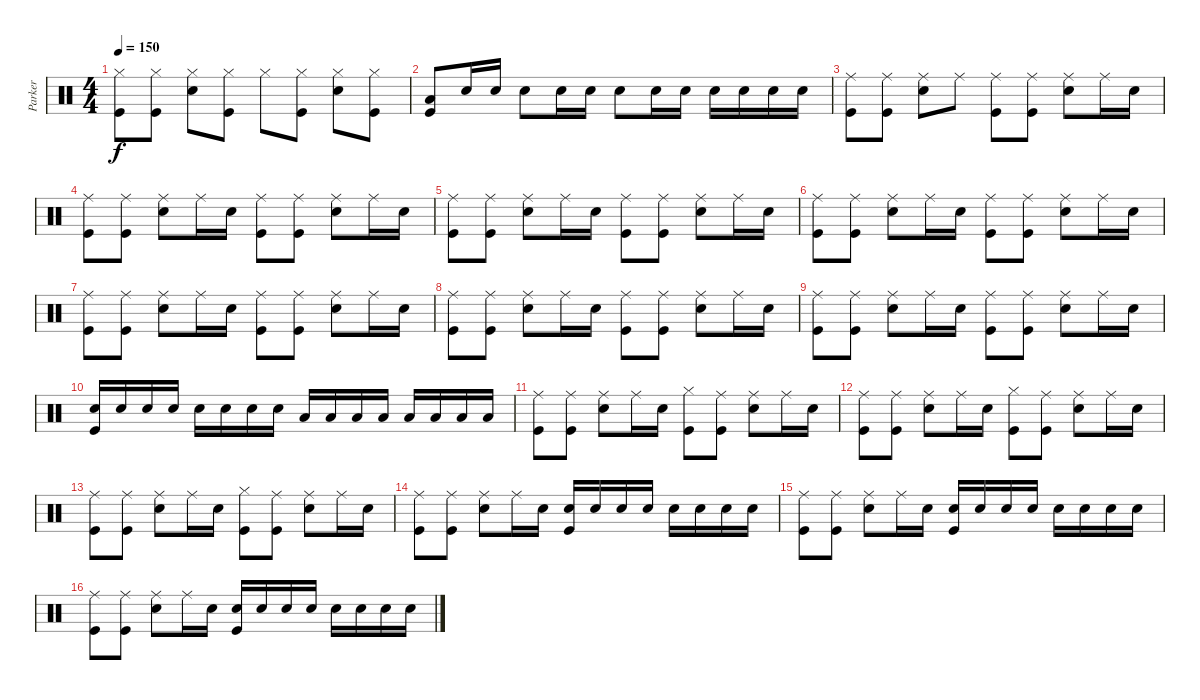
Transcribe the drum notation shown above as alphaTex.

\track ("Parker" "Parker") {instrument percussion}
\staff {score}
\articulation defaults
\ts (4 4)
\tempo 150
\clef neutral
\ks c
("Hi-Hat (closed)" "Kick (hit)").8{dy f} ("Hi-Hat (closed)" "Kick (hit)").8 ("Hi-Hat (closed)" "Electric Snare (hit)").8 ("Hi-Hat (closed)" "Kick (hit)").8 "Hi-Hat (closed)".8 ("Hi-Hat (closed)" "Kick (hit)").8 ("Hi-Hat (closed)" "Electric Snare (hit)").8 ("Hi-Hat (closed)" "Kick (hit)").8 |
("Low Tom (hit)" "Kick (hit)").8 "Electric Snare (hit)".16 "Electric Snare (hit)".16 "Electric Snare (hit)".8 "Electric Snare (hit)".16 "Electric Snare (hit)".16 "Electric Snare (hit)".8 "Electric Snare (hit)".16 "Electric Snare (hit)".16 "Electric Snare (hit)".16 "Electric Snare (hit)".16 "Electric Snare (hit)".16 "Electric Snare (hit)".16 |
("Ride (middle)" "Kick (hit)").8 ("Ride (middle)" "Kick (hit)").8 ("Ride (middle)" "Electric Snare (hit)").8 "Ride (middle)".8 ("Ride (middle)" "Kick (hit)").8 ("Ride (middle)" "Kick (hit)").8 ("Ride (middle)" "Electric Snare (hit)").8 "Ride (middle)".16 "Electric Snare (hit)".16 |
("Ride (middle)" "Kick (hit)").8 ("Ride (middle)" "Kick (hit)").8 ("Ride (middle)" "Electric Snare (hit)").8 "Ride (middle)".16 "Electric Snare (hit)".16 ("Ride (middle)" "Kick (hit)").8 ("Ride (middle)" "Kick (hit)").8 ("Ride (middle)" "Electric Snare (hit)").8 "Ride (middle)".16 "Electric Snare (hit)".16 |
("Ride (middle)" "Kick (hit)").8 ("Ride (middle)" "Kick (hit)").8 ("Ride (middle)" "Electric Snare (hit)").8 "Ride (middle)".16 "Electric Snare (hit)".16 ("Ride (middle)" "Kick (hit)").8 ("Ride (middle)" "Kick (hit)").8 ("Ride (middle)" "Electric Snare (hit)").8 "Ride (middle)".16 "Electric Snare (hit)".16 |
("Ride (middle)" "Kick (hit)").8 ("Ride (middle)" "Kick (hit)").8 ("Ride (middle)" "Electric Snare (hit)").8 "Ride (middle)".16 "Electric Snare (hit)".16 ("Ride (middle)" "Kick (hit)").8 ("Ride (middle)" "Kick (hit)").8 ("Ride (middle)" "Electric Snare (hit)").8 "Ride (middle)".16 "Electric Snare (hit)".16 |
("Ride (middle)" "Kick (hit)").8 ("Ride (middle)" "Kick (hit)").8 ("Ride (middle)" "Electric Snare (hit)").8 "Ride (middle)".16 "Electric Snare (hit)".16 ("Ride (middle)" "Kick (hit)").8 ("Ride (middle)" "Kick (hit)").8 ("Ride (middle)" "Electric Snare (hit)").8 "Ride (middle)".16 "Electric Snare (hit)".16 |
("Ride (middle)" "Kick (hit)").8 ("Ride (middle)" "Kick (hit)").8 ("Ride (middle)" "Electric Snare (hit)").8 "Ride (middle)".16 "Electric Snare (hit)".16 ("Ride (middle)" "Kick (hit)").8 ("Ride (middle)" "Kick (hit)").8 ("Ride (middle)" "Electric Snare (hit)").8 "Ride (middle)".16 "Electric Snare (hit)".16 |
("Ride (middle)" "Kick (hit)").8 ("Ride (middle)" "Kick (hit)").8 ("Ride (middle)" "Electric Snare (hit)").8 "Ride (middle)".16 "Electric Snare (hit)".16 ("Ride (middle)" "Kick (hit)").8 ("Ride (middle)" "Kick (hit)").8 ("Ride (middle)" "Electric Snare (hit)").8 "Ride (middle)".16 "Electric Snare (hit)".16 |
("Electric Snare (hit)" "Kick (hit)").16 "Electric Snare (hit)".16 "Electric Snare (hit)".16 "Electric Snare (hit)".16 "Electric Snare (hit)".16 "Electric Snare (hit)".16 "Electric Snare (hit)".16 "Electric Snare (hit)".16 "Low Tom (hit)".16 "Low Tom (hit)".16 "Low Tom (hit)".16 "Low Tom (hit)".16 "Low Floor Tom (hit)".16 "Low Floor Tom (hit)".16 "Low Floor Tom (hit)".16 "Low Floor Tom (hit)".16 |
("Ride (middle)" "Kick (hit)").8 ("Ride (middle)" "Kick (hit)").8 ("Ride (middle)" "Electric Snare (hit)").8 "Ride (middle)".16 "Electric Snare (hit)".16 ("Hi-Hat (closed)" "Kick (hit)").8 ("Ride (middle)" "Kick (hit)").8 ("Ride (middle)" "Electric Snare (hit)").8 "Ride (middle)".16 "Electric Snare (hit)".16 |
("Ride (middle)" "Kick (hit)").8 ("Ride (middle)" "Kick (hit)").8 ("Ride (middle)" "Electric Snare (hit)").8 "Ride (middle)".16 "Electric Snare (hit)".16 ("Hi-Hat (closed)" "Kick (hit)").8 ("Ride (middle)" "Kick (hit)").8 ("Ride (middle)" "Electric Snare (hit)").8 "Ride (middle)".16 "Electric Snare (hit)".16 |
("Ride (middle)" "Kick (hit)").8 ("Ride (middle)" "Kick (hit)").8 ("Ride (middle)" "Electric Snare (hit)").8 "Ride (middle)".16 "Electric Snare (hit)".16 ("Hi-Hat (closed)" "Kick (hit)").8 ("Ride (middle)" "Kick (hit)").8 ("Ride (middle)" "Electric Snare (hit)").8 "Ride (middle)".16 "Electric Snare (hit)".16 |
("Ride (middle)" "Kick (hit)").8 ("Ride (middle)" "Kick (hit)").8 ("Ride (middle)" "Electric Snare (hit)").8 "Ride (middle)".16 "Electric Snare (hit)".16 ("Electric Snare (hit)" "Kick (hit)").16 "Electric Snare (hit)".16 "Electric Snare (hit)".16 "Electric Snare (hit)".16 "Electric Snare (hit)".16 "Electric Snare (hit)".16 "Electric Snare (hit)".16 "Electric Snare (hit)".16 |
("Ride (middle)" "Kick (hit)").8 ("Ride (middle)" "Kick (hit)").8 ("Ride (middle)" "Electric Snare (hit)").8 "Ride (middle)".16 "Electric Snare (hit)".16 ("Electric Snare (hit)" "Kick (hit)").16 "Electric Snare (hit)".16 "Electric Snare (hit)".16 "Electric Snare (hit)".16 "Electric Snare (hit)".16 "Electric Snare (hit)".16 "Electric Snare (hit)".16 "Electric Snare (hit)".16 |
("Ride (middle)" "Kick (hit)").8 ("Ride (middle)" "Kick (hit)").8 ("Ride (middle)" "Electric Snare (hit)").8 "Ride (middle)".16 "Electric Snare (hit)".16 ("Electric Snare (hit)" "Kick (hit)").16 "Electric Snare (hit)".16 "Electric Snare (hit)".16 "Electric Snare (hit)".16 "Electric Snare (hit)".16 "Electric Snare (hit)".16 "Electric Snare (hit)".16 "Electric Snare (hit)".16
